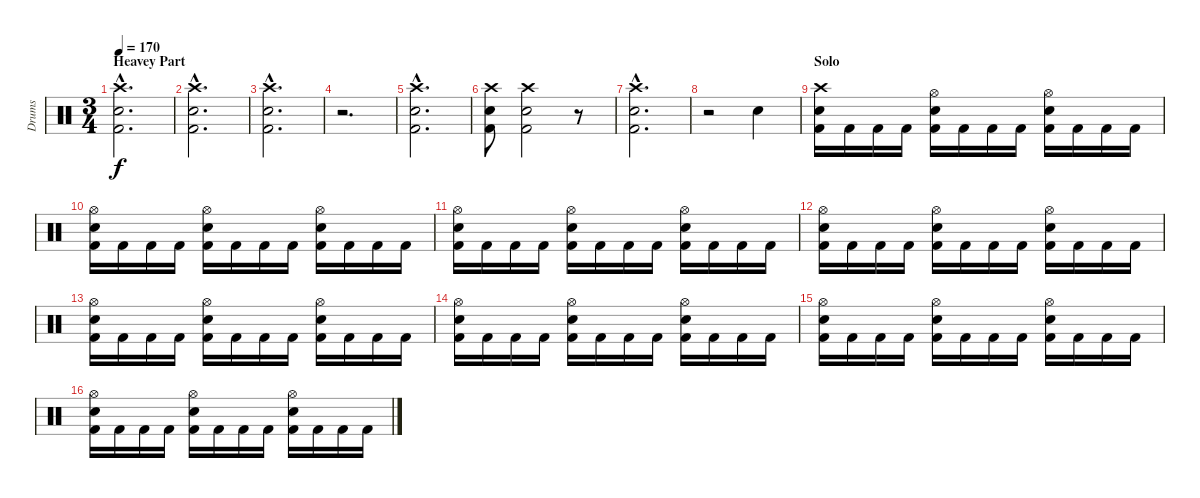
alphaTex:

\track ("Drums" "Drums") {instrument percussion}
\staff {score}
\articulation defaults
\ts (3 4)
\section ("" "Heavey Part")
\tempo 170
\clef neutral
\ks c
("Kick (hit) 2"{hac} "Snare (hit) 2"{hac} "Crash high (hit)"{hac}).2{d dy f} |
("Kick (hit) 2"{hac} "Snare (hit) 2"{hac} "Crash high (hit)"{hac}).2{d} |
("Kick (hit) 2"{hac} "Snare (hit) 2"{hac} "Crash high (hit)"{hac}).2{d} |
r.2{d} |
("Kick (hit) 2"{hac} "Snare (hit) 2"{hac} "Crash high (hit)"{hac}).2{d} |
("Kick (hit) 2" "Snare (hit) 2" "Crash high (hit)").8 ("Kick (hit) 2" "Snare (hit) 2" "Crash high (hit)").2 r.8 |
("Kick (hit) 2"{hac} "Snare (hit) 2"{hac} "Crash high (hit)"{hac}).2{d} |
r.2 "Snare (hit) 2".4 |
\section ("" "Solo")
("Kick (hit) 2" "Snare (hit) 2" "Crash high (hit)").16 "Kick (hit) 2".16 "Kick (hit) 2".16 "Kick (hit) 2".16 ("Kick (hit) 2" "Snare (hit) 2" "Hi-Hat (open)").16 "Kick (hit) 2".16 "Kick (hit) 2".16 "Kick (hit) 2".16 ("Kick (hit) 2" "Snare (hit) 2" "Hi-Hat (open)").16 "Kick (hit) 2".16 "Kick (hit) 2".16 "Kick (hit) 2".16 |
("Kick (hit) 2" "Snare (hit) 2" "Hi-Hat (open)").16 "Kick (hit) 2".16 "Kick (hit) 2".16 "Kick (hit) 2".16 ("Kick (hit) 2" "Snare (hit) 2" "Hi-Hat (open)").16 "Kick (hit) 2".16 "Kick (hit) 2".16 "Kick (hit) 2".16 ("Kick (hit) 2" "Snare (hit) 2" "Hi-Hat (open)").16 "Kick (hit) 2".16 "Kick (hit) 2".16 "Kick (hit) 2".16 |
("Kick (hit) 2" "Snare (hit) 2" "Hi-Hat (open)").16 "Kick (hit) 2".16 "Kick (hit) 2".16 "Kick (hit) 2".16 ("Kick (hit) 2" "Snare (hit) 2" "Hi-Hat (open)").16 "Kick (hit) 2".16 "Kick (hit) 2".16 "Kick (hit) 2".16 ("Kick (hit) 2" "Snare (hit) 2" "Hi-Hat (open)").16 "Kick (hit) 2".16 "Kick (hit) 2".16 "Kick (hit) 2".16 |
("Kick (hit) 2" "Snare (hit) 2" "Hi-Hat (open)").16 "Kick (hit) 2".16 "Kick (hit) 2".16 "Kick (hit) 2".16 ("Kick (hit) 2" "Snare (hit) 2" "Hi-Hat (open)").16 "Kick (hit) 2".16 "Kick (hit) 2".16 "Kick (hit) 2".16 ("Kick (hit) 2" "Snare (hit) 2" "Hi-Hat (open)").16 "Kick (hit) 2".16 "Kick (hit) 2".16 "Kick (hit) 2".16 |
("Kick (hit) 2" "Snare (hit) 2" "Hi-Hat (open)").16 "Kick (hit) 2".16 "Kick (hit) 2".16 "Kick (hit) 2".16 ("Kick (hit) 2" "Snare (hit) 2" "Hi-Hat (open)").16 "Kick (hit) 2".16 "Kick (hit) 2".16 "Kick (hit) 2".16 ("Kick (hit) 2" "Snare (hit) 2" "Hi-Hat (open)").16 "Kick (hit) 2".16 "Kick (hit) 2".16 "Kick (hit) 2".16 |
("Kick (hit) 2" "Snare (hit) 2" "Hi-Hat (open)").16 "Kick (hit) 2".16 "Kick (hit) 2".16 "Kick (hit) 2".16 ("Kick (hit) 2" "Snare (hit) 2" "Hi-Hat (open)").16 "Kick (hit) 2".16 "Kick (hit) 2".16 "Kick (hit) 2".16 ("Kick (hit) 2" "Snare (hit) 2" "Hi-Hat (open)").16 "Kick (hit) 2".16 "Kick (hit) 2".16 "Kick (hit) 2".16 |
("Kick (hit) 2" "Snare (hit) 2" "Hi-Hat (open)").16 "Kick (hit) 2".16 "Kick (hit) 2".16 "Kick (hit) 2".16 ("Kick (hit) 2" "Snare (hit) 2" "Hi-Hat (open)").16 "Kick (hit) 2".16 "Kick (hit) 2".16 "Kick (hit) 2".16 ("Kick (hit) 2" "Snare (hit) 2" "Hi-Hat (open)").16 "Kick (hit) 2".16 "Kick (hit) 2".16 "Kick (hit) 2".16 |
("Kick (hit) 2" "Snare (hit) 2" "Hi-Hat (open)").16 "Kick (hit) 2".16 "Kick (hit) 2".16 "Kick (hit) 2".16 ("Kick (hit) 2" "Snare (hit) 2" "Hi-Hat (open)").16 "Kick (hit) 2".16 "Kick (hit) 2".16 "Kick (hit) 2".16 ("Kick (hit) 2" "Snare (hit) 2" "Hi-Hat (open)").16 "Kick (hit) 2".16 "Kick (hit) 2".16 "Kick (hit) 2".16
